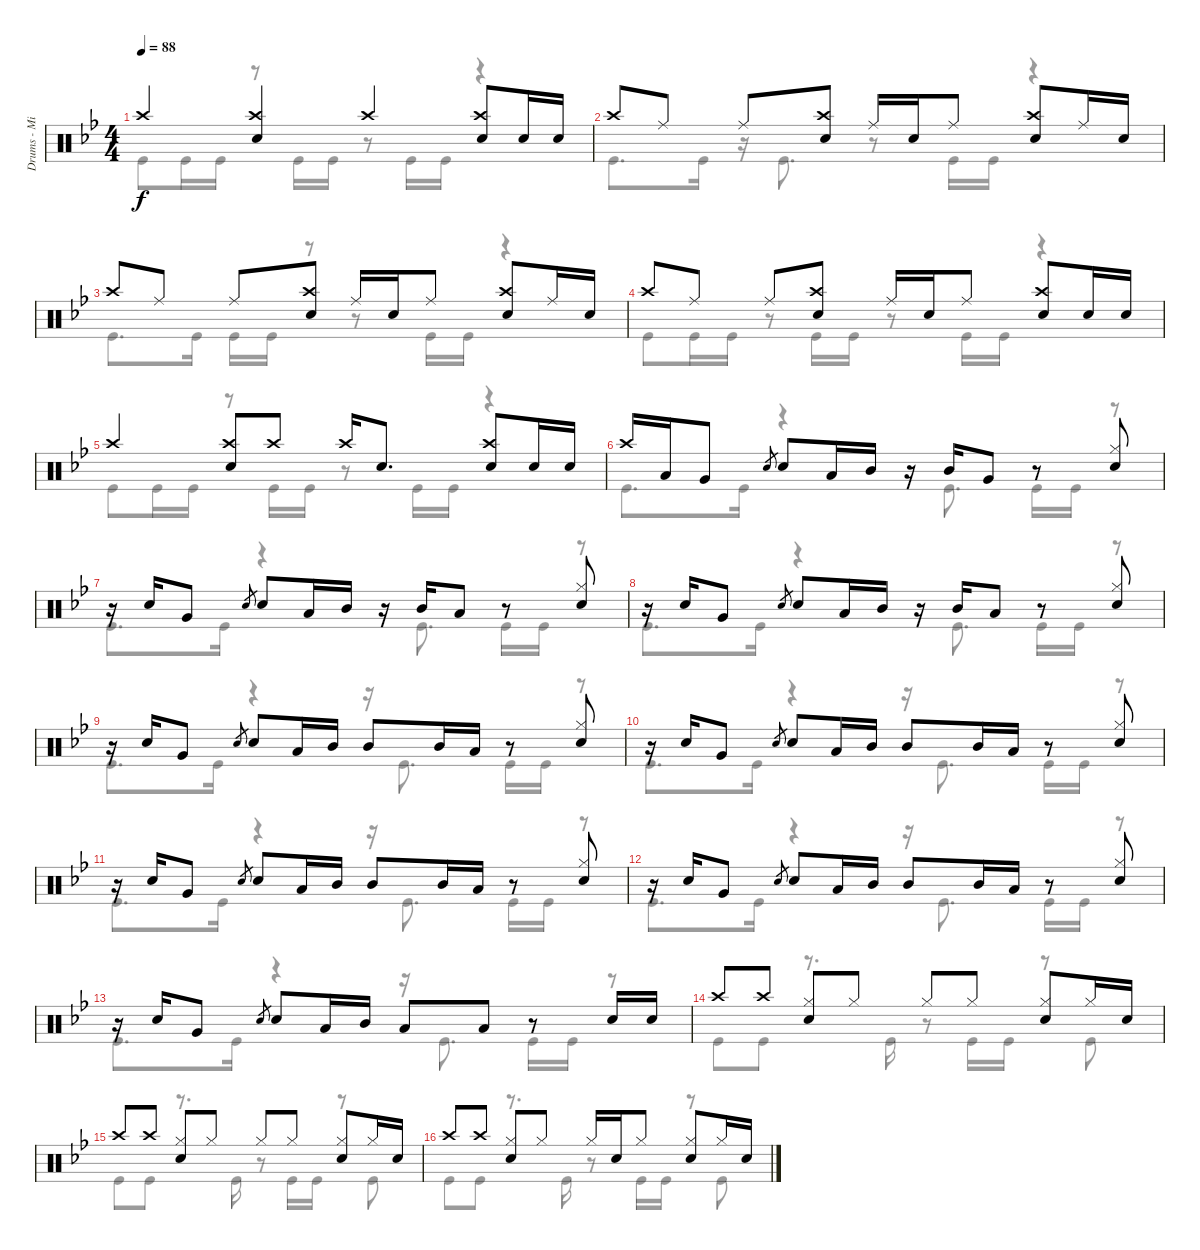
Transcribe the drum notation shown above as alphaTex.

\track ("Drums - Mike Portnoy" "Drums - Mi") {instrument percussion}
\staff {score}
\articulation defaults
\voice
\ts (4 4)
\tempo 88
\clef neutral
\ks bb "Crash high (hit)".4{dy f}
("Crash high (hit)" "Snare (hit) 2").4 "Crash high (hit)".4 ("Crash high (hit)" "Snare (hit) 2").8 "Snare (hit) 2".16 "Snare (hit) 2".16 |
"Crash high (hit)".8 "Ride (middle)".8 "Ride (middle)".8 ("Crash high (hit)" "Snare (hit) 2").8 "Ride (middle)".16 "Snare (hit) 2".16 "Ride (middle)".8 ("Crash high (hit)" "Snare (hit) 2").8 "Ride (middle)".16 "Snare (hit) 2".16 |
"Crash high (hit)".8 "Ride (middle)".8 "Ride (middle)".8 ("Crash high (hit)" "Snare (hit) 2").8 "Ride (middle)".16 "Snare (hit) 2".16 "Ride (middle)".8 ("Crash high (hit)" "Snare (hit) 2").8 "Ride (middle)".16 "Snare (hit) 2".16 |
"Crash high (hit)".8 "Ride (middle)".8 "Ride (middle)".8 ("Crash high (hit)" "Snare (hit) 2").8 "Ride (middle)".16 "Snare (hit) 2".16 "Ride (middle)".8 ("Crash high (hit)" "Snare (hit) 2").8 "Snare (hit) 2".16 "Snare (hit) 2".16 |
"Crash high (hit)".4 ("Crash high (hit)" "Snare (hit) 2").8 "Crash high (hit)".8 "Crash high (hit)".16 "Snare (hit) 2".8{d} ("Crash high (hit)" "Snare (hit) 2").8 "Snare (hit) 2".16 "Snare (hit) 2".16 |
"Crash high (hit)".16{volume 10} "Low Tom (hit)".16 "Very Low Tom (hit)".8 "Snare (hit) 2".8{gr} "Snare (hit) 2".8 "Low Tom (hit)".16 "Mid Tom (hit)".16 r.16 "Mid Tom (hit)".16 "Very Low Tom (hit)".8 r.8 ("Hi-Hat (closed)" "Snare (hit) 2").8 |
r.16 "Snare (hit) 2".16 "Very Low Tom (hit)".8 "Snare (hit) 2".8{gr} "Snare (hit) 2".8 "Low Tom (hit)".16 "Mid Tom (hit)".16 r.16 "Mid Tom (hit)".16 "Low Tom (hit)".8 r.8 ("Hi-Hat (closed)" "Snare (hit) 2").8 |
r.16 "Snare (hit) 2".16 "Very Low Tom (hit)".8 "Snare (hit) 2".8{gr} "Snare (hit) 2".8 "Low Tom (hit)".16 "Mid Tom (hit)".16 r.16 "Mid Tom (hit)".16 "Low Tom (hit)".8 r.8 ("Hi-Hat (closed)" "Snare (hit) 2").8 |
r.16 "Snare (hit) 2".16 "Very Low Tom (hit)".8 "Snare (hit) 2".8{gr} "Snare (hit) 2".8 "Low Tom (hit)".16 "Mid Tom (hit)".16 "Mid Tom (hit)".8 "Mid Tom (hit)".16 "Low Tom (hit)".16 r.8 ("Hi-Hat (closed)" "Snare (hit) 2").8 |
r.16 "Snare (hit) 2".16 "Very Low Tom (hit)".8 "Snare (hit) 2".8{gr} "Snare (hit) 2".8 "Low Tom (hit)".16 "Mid Tom (hit)".16 "Mid Tom (hit)".8 "Mid Tom (hit)".16 "Low Tom (hit)".16 r.8 ("Hi-Hat (closed)" "Snare (hit) 2").8 |
r.16 "Snare (hit) 2".16 "Very Low Tom (hit)".8 "Snare (hit) 2".8{gr} "Snare (hit) 2".8 "Low Tom (hit)".16 "Mid Tom (hit)".16 "Mid Tom (hit)".8 "Mid Tom (hit)".16 "Low Tom (hit)".16 r.8 ("Hi-Hat (closed)" "Snare (hit) 2").8 |
r.16 "Snare (hit) 2".16 "Very Low Tom (hit)".8 "Snare (hit) 2".8{gr} "Snare (hit) 2".8 "Low Tom (hit)".16 "Mid Tom (hit)".16 "Mid Tom (hit)".8 "Mid Tom (hit)".16 "Low Tom (hit)".16 r.8 ("Hi-Hat (closed)" "Snare (hit) 2").8 |
r.16 "Snare (hit) 2".16 "Very Low Tom (hit)".8 "Snare (hit) 2".8{gr} "Snare (hit) 2".8 "Low Tom (hit)".16 "Mid Tom (hit)".16 "Low Tom (hit)".8 "Low Tom (hit)".8 r.8 "Snare (hit) 2".16 "Snare (hit) 2".16 |
"Crash high (hit)".8{volume 13} "Crash high (hit)".8 ("Hi-Hat (closed)" "Snare (hit) 2").8 "Hi-Hat (closed)".8 "Hi-Hat (closed)".8 "Hi-Hat (closed)".8 ("Hi-Hat (closed)" "Snare (hit) 2").8 "Hi-Hat (closed)".16 "Snare (hit) 2".16 |
"Crash high (hit)".8 "Crash high (hit)".8 ("Hi-Hat (closed)" "Snare (hit) 2").8 "Hi-Hat (closed)".8 "Hi-Hat (closed)".8 "Hi-Hat (closed)".8 ("Hi-Hat (closed)" "Snare (hit) 2").8 "Hi-Hat (closed)".16 "Snare (hit) 2".16 |
"Crash high (hit)".8 "Crash high (hit)".8 ("Hi-Hat (closed)" "Snare (hit) 2").8 "Hi-Hat (closed)".8 "Hi-Hat (closed)".16 "Snare (hit) 2".16 "Hi-Hat (closed)".8 ("Hi-Hat (closed)" "Snare (hit) 2").8 "Hi-Hat (closed)".16 "Snare (hit) 2".16
\voice
\clef neutral
\ottava regular
\simile none
\ks bb "Kick (hit)".8{dy f} "Kick (hit)".16 "Kick (hit)".16
r.8 "Kick (hit)".16 "Kick (hit)".16 r.8 "Kick (hit)".16 "Kick (hit)".16 r.4 |
"Kick (hit)".8{d} "Kick (hit)".16 r.16 "Kick (hit)".8{d} r.8 "Kick (hit)".16 "Kick (hit)".16 r.4 |
"Kick (hit)".8{d} "Kick (hit)".16 "Kick (hit)".16 "Kick (hit)".16 r.8 r.8 "Kick (hit)".16 "Kick (hit)".16 r.4 |
"Kick (hit)".8 "Kick (hit)".16 "Kick (hit)".16 r.8 "Kick (hit)".16 "Kick (hit)".16 r.8 "Kick (hit)".16 "Kick (hit)".16 r.4 |
"Kick (hit)".8 "Kick (hit)".16 "Kick (hit)".16 r.8 "Kick (hit)".16 "Kick (hit)".16 r.8 "Kick (hit)".16 "Kick (hit)".16 r.4 |
"Kick (hit)".8{d} "Kick (hit)".16 r.4 r.16 "Kick (hit)".8{d} "Kick (hit)".16 "Kick (hit)".16 r.8 |
"Kick (hit)".8{d} "Kick (hit)".16 r.4 r.16 "Kick (hit)".8{d} "Kick (hit)".16 "Kick (hit)".16 r.8 |
"Kick (hit)".8{d} "Kick (hit)".16 r.4 r.16 "Kick (hit)".8{d} "Kick (hit)".16 "Kick (hit)".16 r.8 |
"Kick (hit)".8{d} "Kick (hit)".16 r.4 r.16 "Kick (hit)".8{d} "Kick (hit)".16 "Kick (hit)".16 r.8 |
"Kick (hit)".8{d} "Kick (hit)".16 r.4 r.16 "Kick (hit)".8{d} "Kick (hit)".16 "Kick (hit)".16 r.8 |
"Kick (hit)".8{d} "Kick (hit)".16 r.4 r.16 "Kick (hit)".8{d} "Kick (hit)".16 "Kick (hit)".16 r.8 |
"Kick (hit)".8{d} "Kick (hit)".16 r.4 r.16 "Kick (hit)".8{d} "Kick (hit)".16 "Kick (hit)".16 r.8 |
"Kick (hit)".8{d} "Kick (hit)".16 r.4 r.16 "Kick (hit)".8{d} "Kick (hit)".16 "Kick (hit)".16 r.8 |
"Kick (hit)".8 "Kick (hit)".8 r.8{d} "Kick (hit)".16 r.8 "Kick (hit)".16 "Kick (hit)".16 r.8 "Kick (hit)".8 |
"Kick (hit)".8 "Kick (hit)".8 r.8{d} "Kick (hit)".16 r.8 "Kick (hit)".16 "Kick (hit)".16 r.8 "Kick (hit)".8 |
"Kick (hit)".8 "Kick (hit)".8 r.8{d} "Kick (hit)".16 r.8 "Kick (hit)".16 "Kick (hit)".16 r.8 "Kick (hit)".8
